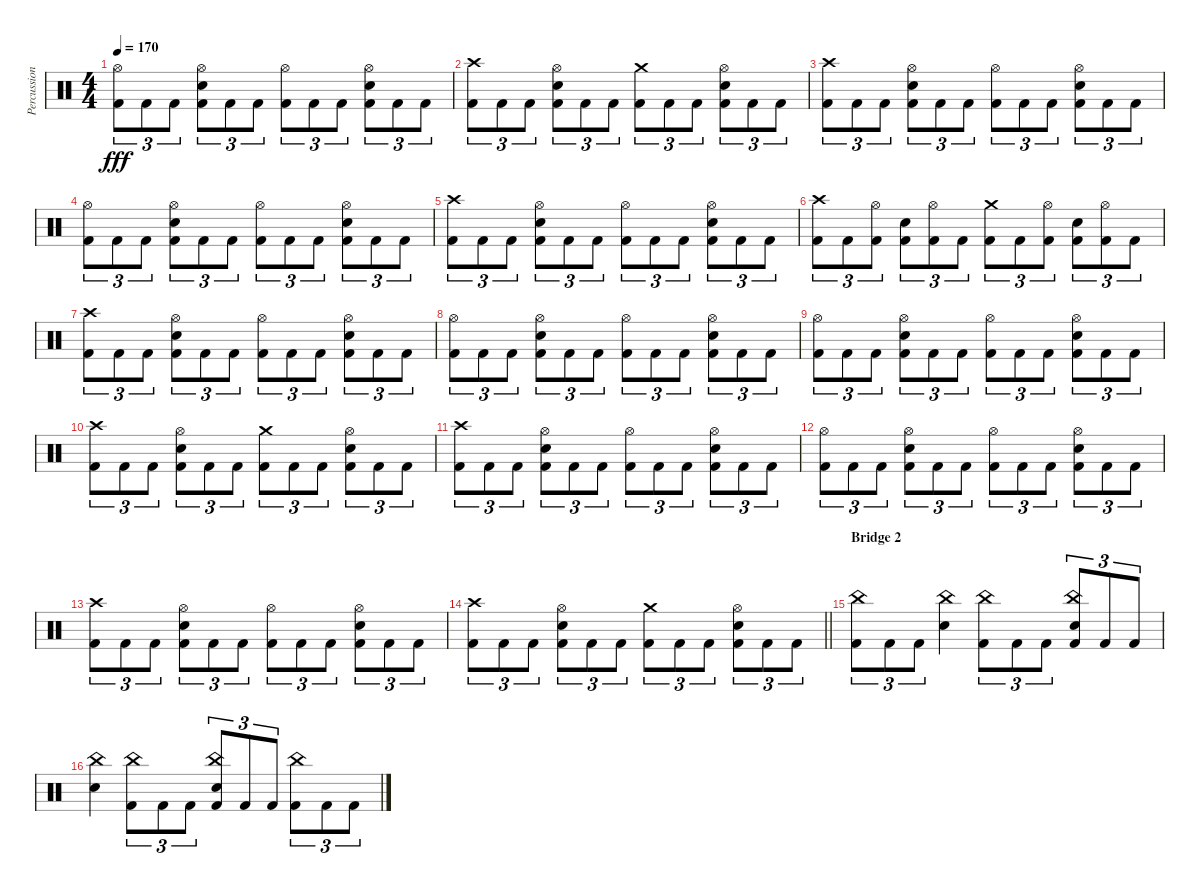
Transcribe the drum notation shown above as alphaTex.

\track ("Percussion" "Percussion") {instrument percussion}
\staff {score}
\articulation defaults
\ts (4 4)
\tempo 170
\clef neutral
\ks c
("Hi-Hat (open)" "Kick (hit) 2").8{tu (3 2) dy fff} "Kick (hit) 2".8{tu (3 2)} "Kick (hit) 2".8{tu (3 2)} ("Hi-Hat (open)" "Snare (hit) 2" "Kick (hit) 2").8{tu (3 2)} "Kick (hit) 2".8{tu (3 2)} "Kick (hit) 2".8{tu (3 2)} ("Hi-Hat (open)" "Kick (hit) 2").8{tu (3 2)} "Kick (hit) 2".8{tu (3 2)} "Kick (hit) 2".8{tu (3 2)} ("Hi-Hat (open)" "Snare (hit) 2" "Kick (hit) 2").8{tu (3 2)} "Kick (hit) 2".8{tu (3 2)} "Kick (hit) 2".8{tu (3 2)} |
("Crash high (hit)" "Kick (hit) 2").8{tu (3 2)} "Kick (hit) 2".8{tu (3 2)} "Kick (hit) 2".8{tu (3 2)} ("Hi-Hat (open)" "Snare (hit) 2" "Kick (hit) 2").8{tu (3 2)} "Kick (hit) 2".8{tu (3 2)} "Kick (hit) 2".8{tu (3 2)} ("Crash medium (hit)" "Kick (hit) 2").8{tu (3 2)} "Kick (hit) 2".8{tu (3 2)} "Kick (hit) 2".8{tu (3 2)} ("Hi-Hat (open)" "Snare (hit) 2" "Kick (hit) 2").8{tu (3 2)} "Kick (hit) 2".8{tu (3 2)} "Kick (hit) 2".8{tu (3 2)} |
("Crash high (hit)" "Kick (hit) 2").8{tu (3 2)} "Kick (hit) 2".8{tu (3 2)} "Kick (hit) 2".8{tu (3 2)} ("Hi-Hat (open)" "Snare (hit) 2" "Kick (hit) 2").8{tu (3 2)} "Kick (hit) 2".8{tu (3 2)} "Kick (hit) 2".8{tu (3 2)} ("Hi-Hat (open)" "Kick (hit) 2").8{tu (3 2)} "Kick (hit) 2".8{tu (3 2)} "Kick (hit) 2".8{tu (3 2)} ("Hi-Hat (open)" "Snare (hit) 2" "Kick (hit) 2").8{tu (3 2)} "Kick (hit) 2".8{tu (3 2)} "Kick (hit) 2".8{tu (3 2)} |
("Hi-Hat (open)" "Kick (hit) 2").8{tu (3 2)} "Kick (hit) 2".8{tu (3 2)} "Kick (hit) 2".8{tu (3 2)} ("Hi-Hat (open)" "Snare (hit) 2" "Kick (hit) 2").8{tu (3 2)} "Kick (hit) 2".8{tu (3 2)} "Kick (hit) 2".8{tu (3 2)} ("Hi-Hat (open)" "Kick (hit) 2").8{tu (3 2)} "Kick (hit) 2".8{tu (3 2)} "Kick (hit) 2".8{tu (3 2)} ("Hi-Hat (open)" "Snare (hit) 2" "Kick (hit) 2").8{tu (3 2)} "Kick (hit) 2".8{tu (3 2)} "Kick (hit) 2".8{tu (3 2)} |
("Crash high (hit)" "Kick (hit) 2").8{tu (3 2)} "Kick (hit) 2".8{tu (3 2)} "Kick (hit) 2".8{tu (3 2)} ("Hi-Hat (open)" "Snare (hit) 2" "Kick (hit) 2").8{tu (3 2)} "Kick (hit) 2".8{tu (3 2)} "Kick (hit) 2".8{tu (3 2)} ("Hi-Hat (open)" "Kick (hit) 2").8{tu (3 2)} "Kick (hit) 2".8{tu (3 2)} "Kick (hit) 2".8{tu (3 2)} ("Hi-Hat (open)" "Snare (hit) 2" "Kick (hit) 2").8{tu (3 2)} "Kick (hit) 2".8{tu (3 2)} "Kick (hit) 2".8{tu (3 2)} |
("Crash high (hit)" "Kick (hit) 2").8{tu (3 2)} "Kick (hit) 2".8{tu (3 2)} ("Hi-Hat (open)" "Kick (hit) 2").8{tu (3 2)} ("Snare (hit) 2" "Kick (hit) 2").8{tu (3 2)} ("Hi-Hat (open)" "Kick (hit) 2").8{tu (3 2)} "Kick (hit) 2".8{tu (3 2)} ("Crash medium (hit)" "Kick (hit) 2").8{tu (3 2)} "Kick (hit) 2".8{tu (3 2)} ("Hi-Hat (open)" "Kick (hit) 2").8{tu (3 2)} ("Snare (hit) 2" "Kick (hit) 2").8{tu (3 2)} ("Hi-Hat (open)" "Kick (hit) 2").8{tu (3 2)} "Kick (hit) 2".8{tu (3 2)} |
("Crash high (hit)" "Kick (hit) 2").8{tu (3 2)} "Kick (hit) 2".8{tu (3 2)} "Kick (hit) 2".8{tu (3 2)} ("Hi-Hat (open)" "Snare (hit) 2" "Kick (hit) 2").8{tu (3 2)} "Kick (hit) 2".8{tu (3 2)} "Kick (hit) 2".8{tu (3 2)} ("Hi-Hat (open)" "Kick (hit) 2").8{tu (3 2)} "Kick (hit) 2".8{tu (3 2)} "Kick (hit) 2".8{tu (3 2)} ("Hi-Hat (open)" "Snare (hit) 2" "Kick (hit) 2").8{tu (3 2)} "Kick (hit) 2".8{tu (3 2)} "Kick (hit) 2".8{tu (3 2)} |
("Hi-Hat (open)" "Kick (hit) 2").8{tu (3 2)} "Kick (hit) 2".8{tu (3 2)} "Kick (hit) 2".8{tu (3 2)} ("Hi-Hat (open)" "Snare (hit) 2" "Kick (hit) 2").8{tu (3 2)} "Kick (hit) 2".8{tu (3 2)} "Kick (hit) 2".8{tu (3 2)} ("Hi-Hat (open)" "Kick (hit) 2").8{tu (3 2)} "Kick (hit) 2".8{tu (3 2)} "Kick (hit) 2".8{tu (3 2)} ("Hi-Hat (open)" "Snare (hit) 2" "Kick (hit) 2").8{tu (3 2)} "Kick (hit) 2".8{tu (3 2)} "Kick (hit) 2".8{tu (3 2)} |
("Hi-Hat (open)" "Kick (hit) 2").8{tu (3 2)} "Kick (hit) 2".8{tu (3 2)} "Kick (hit) 2".8{tu (3 2)} ("Hi-Hat (open)" "Snare (hit) 2" "Kick (hit) 2").8{tu (3 2)} "Kick (hit) 2".8{tu (3 2)} "Kick (hit) 2".8{tu (3 2)} ("Hi-Hat (open)" "Kick (hit) 2").8{tu (3 2)} "Kick (hit) 2".8{tu (3 2)} "Kick (hit) 2".8{tu (3 2)} ("Hi-Hat (open)" "Snare (hit) 2" "Kick (hit) 2").8{tu (3 2)} "Kick (hit) 2".8{tu (3 2)} "Kick (hit) 2".8{tu (3 2)} |
("Crash high (hit)" "Kick (hit) 2").8{tu (3 2)} "Kick (hit) 2".8{tu (3 2)} "Kick (hit) 2".8{tu (3 2)} ("Hi-Hat (open)" "Snare (hit) 2" "Kick (hit) 2").8{tu (3 2)} "Kick (hit) 2".8{tu (3 2)} "Kick (hit) 2".8{tu (3 2)} ("Crash medium (hit)" "Kick (hit) 2").8{tu (3 2)} "Kick (hit) 2".8{tu (3 2)} "Kick (hit) 2".8{tu (3 2)} ("Hi-Hat (open)" "Snare (hit) 2" "Kick (hit) 2").8{tu (3 2)} "Kick (hit) 2".8{tu (3 2)} "Kick (hit) 2".8{tu (3 2)} |
("Crash high (hit)" "Kick (hit) 2").8{tu (3 2)} "Kick (hit) 2".8{tu (3 2)} "Kick (hit) 2".8{tu (3 2)} ("Hi-Hat (open)" "Snare (hit) 2" "Kick (hit) 2").8{tu (3 2)} "Kick (hit) 2".8{tu (3 2)} "Kick (hit) 2".8{tu (3 2)} ("Hi-Hat (open)" "Kick (hit) 2").8{tu (3 2)} "Kick (hit) 2".8{tu (3 2)} "Kick (hit) 2".8{tu (3 2)} ("Hi-Hat (open)" "Snare (hit) 2" "Kick (hit) 2").8{tu (3 2)} "Kick (hit) 2".8{tu (3 2)} "Kick (hit) 2".8{tu (3 2)} |
("Hi-Hat (open)" "Kick (hit) 2").8{tu (3 2)} "Kick (hit) 2".8{tu (3 2)} "Kick (hit) 2".8{tu (3 2)} ("Hi-Hat (open)" "Snare (hit) 2" "Kick (hit) 2").8{tu (3 2)} "Kick (hit) 2".8{tu (3 2)} "Kick (hit) 2".8{tu (3 2)} ("Hi-Hat (open)" "Kick (hit) 2").8{tu (3 2)} "Kick (hit) 2".8{tu (3 2)} "Kick (hit) 2".8{tu (3 2)} ("Hi-Hat (open)" "Snare (hit) 2" "Kick (hit) 2").8{tu (3 2)} "Kick (hit) 2".8{tu (3 2)} "Kick (hit) 2".8{tu (3 2)} |
("Crash high (hit)" "Kick (hit) 2").8{tu (3 2)} "Kick (hit) 2".8{tu (3 2)} "Kick (hit) 2".8{tu (3 2)} ("Hi-Hat (open)" "Snare (hit) 2" "Kick (hit) 2").8{tu (3 2)} "Kick (hit) 2".8{tu (3 2)} "Kick (hit) 2".8{tu (3 2)} ("Hi-Hat (open)" "Kick (hit) 2").8{tu (3 2)} "Kick (hit) 2".8{tu (3 2)} "Kick (hit) 2".8{tu (3 2)} ("Hi-Hat (open)" "Snare (hit) 2" "Kick (hit) 2").8{tu (3 2)} "Kick (hit) 2".8{tu (3 2)} "Kick (hit) 2".8{tu (3 2)} |
\barLineRight lightlight
("Crash high (hit)" "Kick (hit) 2").8{tu (3 2)} "Kick (hit) 2".8{tu (3 2)} "Kick (hit) 2".8{tu (3 2)} ("Hi-Hat (open)" "Snare (hit) 2" "Kick (hit) 2").8{tu (3 2)} "Kick (hit) 2".8{tu (3 2)} "Kick (hit) 2".8{tu (3 2)} ("Crash medium (hit)" "Kick (hit) 2").8{tu (3 2)} "Kick (hit) 2".8{tu (3 2)} "Kick (hit) 2".8{tu (3 2)} ("Hi-Hat (open)" "Snare (hit) 2" "Kick (hit) 2").8{tu (3 2)} "Kick (hit) 2".8{tu (3 2)} "Kick (hit) 2".8{tu (3 2)} |
\section ("" "Bridge 2")
("China (hit)" "Kick (hit) 2").8{tu (3 2)} "Kick (hit) 2".8{tu (3 2)} "Kick (hit) 2".8{tu (3 2)} ("China (hit)" "Electric Snare (hit)").4 ("China (hit)" "Kick (hit) 2").8{tu (3 2)} "Kick (hit) 2".8{tu (3 2)} "Kick (hit) 2".8{tu (3 2)} ("China (hit)" "Electric Snare (hit)" "Kick (hit) 2").8{tu (3 2)} "Kick (hit) 2".8{tu (3 2)} "Kick (hit) 2".8{tu (3 2)} |
("China (hit)" "Electric Snare (hit)").4 ("China (hit)" "Kick (hit) 2").8{tu (3 2)} "Kick (hit) 2".8{tu (3 2)} "Kick (hit) 2".8{tu (3 2)} ("China (hit)" "Electric Snare (hit)" "Kick (hit) 2").8{tu (3 2)} "Kick (hit) 2".8{tu (3 2)} "Kick (hit) 2".8{tu (3 2)} ("China (hit)" "Kick (hit) 2").8{tu (3 2)} "Kick (hit) 2".8{tu (3 2)} "Kick (hit) 2".8{tu (3 2)}
